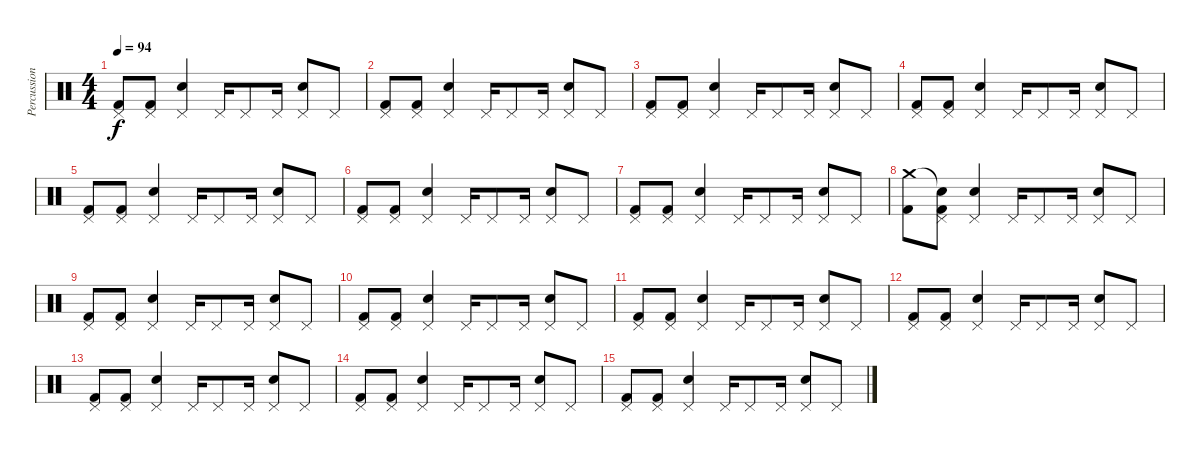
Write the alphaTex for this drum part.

\track ("Percussions" "Percussion") {instrument percussion}
\staff {score}
\articulation defaults
\ts (4 4)
\tempo 94
\clef neutral
\ks c
("Pedal Hi-Hat (hit)" "Kick (hit) 2").8{dy f} ("Pedal Hi-Hat (hit)" "Kick (hit) 2").8 ("Pedal Hi-Hat (hit)" "Electric Snare (hit)").4 "Pedal Hi-Hat (hit)".16 "Pedal Hi-Hat (hit)".8 "Pedal Hi-Hat (hit)".16 ("Pedal Hi-Hat (hit)" "Electric Snare (hit)").8 "Pedal Hi-Hat (hit)".8 |
("Pedal Hi-Hat (hit)" "Kick (hit) 2").8 ("Pedal Hi-Hat (hit)" "Kick (hit) 2").8 ("Pedal Hi-Hat (hit)" "Electric Snare (hit)").4 "Pedal Hi-Hat (hit)".16 "Pedal Hi-Hat (hit)".8 "Pedal Hi-Hat (hit)".16 ("Pedal Hi-Hat (hit)" "Electric Snare (hit)").8 "Pedal Hi-Hat (hit)".8 |
("Pedal Hi-Hat (hit)" "Kick (hit) 2").8 ("Pedal Hi-Hat (hit)" "Kick (hit) 2").8 ("Pedal Hi-Hat (hit)" "Electric Snare (hit)").4 "Pedal Hi-Hat (hit)".16 "Pedal Hi-Hat (hit)".8 "Pedal Hi-Hat (hit)".16 ("Pedal Hi-Hat (hit)" "Electric Snare (hit)").8 "Pedal Hi-Hat (hit)".8 |
("Pedal Hi-Hat (hit)" "Kick (hit) 2").8 ("Pedal Hi-Hat (hit)" "Kick (hit) 2").8 ("Pedal Hi-Hat (hit)" "Electric Snare (hit)").4 "Pedal Hi-Hat (hit)".16 "Pedal Hi-Hat (hit)".8 "Pedal Hi-Hat (hit)".16 ("Pedal Hi-Hat (hit)" "Electric Snare (hit)").8 "Pedal Hi-Hat (hit)".8 |
("Pedal Hi-Hat (hit)" "Kick (hit) 2").8 ("Pedal Hi-Hat (hit)" "Kick (hit) 2").8 ("Pedal Hi-Hat (hit)" "Electric Snare (hit)").4 "Pedal Hi-Hat (hit)".16 "Pedal Hi-Hat (hit)".8 "Pedal Hi-Hat (hit)".16 ("Pedal Hi-Hat (hit)" "Electric Snare (hit)").8 "Pedal Hi-Hat (hit)".8 |
("Pedal Hi-Hat (hit)" "Kick (hit) 2").8 ("Pedal Hi-Hat (hit)" "Kick (hit) 2").8 ("Pedal Hi-Hat (hit)" "Electric Snare (hit)").4 "Pedal Hi-Hat (hit)".16 "Pedal Hi-Hat (hit)".8 "Pedal Hi-Hat (hit)".16 ("Pedal Hi-Hat (hit)" "Electric Snare (hit)").8 "Pedal Hi-Hat (hit)".8 |
("Pedal Hi-Hat (hit)" "Kick (hit) 2").8 ("Pedal Hi-Hat (hit)" "Kick (hit) 2").8 ("Pedal Hi-Hat (hit)" "Electric Snare (hit)").4 "Pedal Hi-Hat (hit)".16 "Pedal Hi-Hat (hit)".8 "Pedal Hi-Hat (hit)".16 ("Pedal Hi-Hat (hit)" "Electric Snare (hit)").8 "Pedal Hi-Hat (hit)".8 |
("Crash medium (hit)" "Kick (hit) 2").8 ("Snare (hit)"{t} "Pedal Hi-Hat (hit)" "Kick (hit) 2").8 ("Pedal Hi-Hat (hit)" "Electric Snare (hit)").4 "Pedal Hi-Hat (hit)".16 "Pedal Hi-Hat (hit)".8 "Pedal Hi-Hat (hit)".16 ("Pedal Hi-Hat (hit)" "Electric Snare (hit)").8 "Pedal Hi-Hat (hit)".8 |
("Pedal Hi-Hat (hit)" "Kick (hit) 2").8 ("Pedal Hi-Hat (hit)" "Kick (hit) 2").8 ("Pedal Hi-Hat (hit)" "Electric Snare (hit)").4 "Pedal Hi-Hat (hit)".16 "Pedal Hi-Hat (hit)".8 "Pedal Hi-Hat (hit)".16 ("Pedal Hi-Hat (hit)" "Electric Snare (hit)").8 "Pedal Hi-Hat (hit)".8 |
("Pedal Hi-Hat (hit)" "Kick (hit) 2").8 ("Pedal Hi-Hat (hit)" "Kick (hit) 2").8 ("Pedal Hi-Hat (hit)" "Electric Snare (hit)").4 "Pedal Hi-Hat (hit)".16 "Pedal Hi-Hat (hit)".8 "Pedal Hi-Hat (hit)".16 ("Pedal Hi-Hat (hit)" "Electric Snare (hit)").8 "Pedal Hi-Hat (hit)".8 |
("Pedal Hi-Hat (hit)" "Kick (hit) 2").8 ("Pedal Hi-Hat (hit)" "Kick (hit) 2").8 ("Pedal Hi-Hat (hit)" "Electric Snare (hit)").4 "Pedal Hi-Hat (hit)".16 "Pedal Hi-Hat (hit)".8 "Pedal Hi-Hat (hit)".16 ("Pedal Hi-Hat (hit)" "Electric Snare (hit)").8 "Pedal Hi-Hat (hit)".8 |
("Pedal Hi-Hat (hit)" "Kick (hit) 2").8 ("Pedal Hi-Hat (hit)" "Kick (hit) 2").8 ("Pedal Hi-Hat (hit)" "Electric Snare (hit)").4 "Pedal Hi-Hat (hit)".16 "Pedal Hi-Hat (hit)".8 "Pedal Hi-Hat (hit)".16 ("Pedal Hi-Hat (hit)" "Electric Snare (hit)").8 "Pedal Hi-Hat (hit)".8 |
("Pedal Hi-Hat (hit)" "Kick (hit) 2").8 ("Pedal Hi-Hat (hit)" "Kick (hit) 2").8 ("Pedal Hi-Hat (hit)" "Electric Snare (hit)").4 "Pedal Hi-Hat (hit)".16 "Pedal Hi-Hat (hit)".8 "Pedal Hi-Hat (hit)".16 ("Pedal Hi-Hat (hit)" "Electric Snare (hit)").8 "Pedal Hi-Hat (hit)".8 |
("Pedal Hi-Hat (hit)" "Kick (hit) 2").8 ("Pedal Hi-Hat (hit)" "Kick (hit) 2").8 ("Pedal Hi-Hat (hit)" "Electric Snare (hit)").4 "Pedal Hi-Hat (hit)".16 "Pedal Hi-Hat (hit)".8 "Pedal Hi-Hat (hit)".16 ("Pedal Hi-Hat (hit)" "Electric Snare (hit)").8 "Pedal Hi-Hat (hit)".8 |
("Pedal Hi-Hat (hit)" "Kick (hit) 2").8 ("Pedal Hi-Hat (hit)" "Kick (hit) 2").8 ("Pedal Hi-Hat (hit)" "Electric Snare (hit)").4 "Pedal Hi-Hat (hit)".16 "Pedal Hi-Hat (hit)".8 "Pedal Hi-Hat (hit)".16 ("Pedal Hi-Hat (hit)" "Electric Snare (hit)").8 "Pedal Hi-Hat (hit)".8
